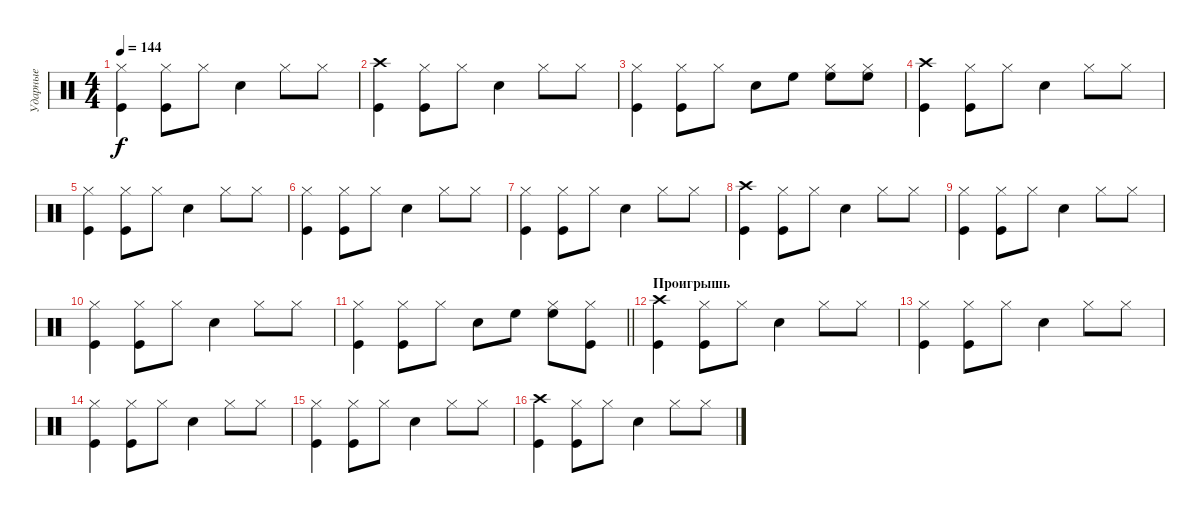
\track ("Ударные" "Ударные") {instrument percussion}
\staff {score}
\articulation defaults
\ts (4 4)
\tempo 144
\clef neutral
\ks c
("Hi-Hat (closed)" "Kick (hit)").4{dy f} ("Hi-Hat (closed)" "Kick (hit)").8 "Hi-Hat (closed)".8 "Snare (hit) 2".4 "Hi-Hat (closed)".8 "Hi-Hat (closed)".8 |
("Crash high (hit)" "Kick (hit)").4 ("Hi-Hat (closed)" "Kick (hit)").8 "Hi-Hat (closed)".8 "Snare (hit) 2".4 "Hi-Hat (closed)".8 "Hi-Hat (closed)".8 |
("Hi-Hat (closed)" "Kick (hit)").4 ("Hi-Hat (closed)" "Kick (hit)").8 "Hi-Hat (closed)".8 "Snare (hit) 2".8 "High Floor Tom (hit)".8 ("Hi-Hat (closed)" "High Floor Tom (hit)").8 ("Hi-Hat (closed)" "High Floor Tom (hit)").8 |
("Crash high (hit)" "Kick (hit)").4 ("Hi-Hat (closed)" "Kick (hit)").8 "Hi-Hat (closed)".8 "Snare (hit) 2".4 "Hi-Hat (closed)".8 "Hi-Hat (closed)".8 |
("Hi-Hat (closed)" "Kick (hit)").4 ("Hi-Hat (closed)" "Kick (hit)").8 "Hi-Hat (closed)".8 "Snare (hit) 2".4 "Hi-Hat (closed)".8 "Hi-Hat (closed)".8 |
("Hi-Hat (closed)" "Kick (hit)").4 ("Hi-Hat (closed)" "Kick (hit)").8 "Hi-Hat (closed)".8 "Snare (hit) 2".4 "Hi-Hat (closed)".8 "Hi-Hat (closed)".8 |
("Hi-Hat (closed)" "Kick (hit)").4 ("Hi-Hat (closed)" "Kick (hit)").8 "Hi-Hat (closed)".8 "Snare (hit) 2".4 "Hi-Hat (closed)".8 "Hi-Hat (closed)".8 |
("Crash high (hit)" "Kick (hit)").4 ("Hi-Hat (closed)" "Kick (hit)").8 "Hi-Hat (closed)".8 "Snare (hit) 2".4 "Hi-Hat (closed)".8 "Hi-Hat (closed)".8 |
("Hi-Hat (closed)" "Kick (hit)").4 ("Hi-Hat (closed)" "Kick (hit)").8 "Hi-Hat (closed)".8 "Snare (hit) 2".4 "Hi-Hat (closed)".8 "Hi-Hat (closed)".8 |
("Hi-Hat (closed)" "Kick (hit)").4 ("Hi-Hat (closed)" "Kick (hit)").8 "Hi-Hat (closed)".8 "Snare (hit) 2".4 "Hi-Hat (closed)".8 "Hi-Hat (closed)".8 |
\barLineRight lightlight
("Hi-Hat (closed)" "Kick (hit)").4 ("Hi-Hat (closed)" "Kick (hit)").8 "Hi-Hat (closed)".8 "Snare (hit) 2".8 "High Floor Tom (hit)".8 ("Hi-Hat (closed)" "High Floor Tom (hit)").8 ("Hi-Hat (closed)" "Kick (hit)").8 |
\section ("" "Проигрышь")
("Crash high (hit)" "Kick (hit)").4 ("Hi-Hat (closed)" "Kick (hit)").8 "Hi-Hat (closed)".8 "Snare (hit) 2".4 "Hi-Hat (closed)".8 "Hi-Hat (closed)".8 |
("Hi-Hat (closed)" "Kick (hit)").4 ("Hi-Hat (closed)" "Kick (hit)").8 "Hi-Hat (closed)".8 "Snare (hit) 2".4 "Hi-Hat (closed)".8 "Hi-Hat (closed)".8 |
("Hi-Hat (closed)" "Kick (hit)").4 ("Hi-Hat (closed)" "Kick (hit)").8 "Hi-Hat (closed)".8 "Snare (hit) 2".4 "Hi-Hat (closed)".8 "Hi-Hat (closed)".8 |
("Hi-Hat (closed)" "Kick (hit)").4 ("Hi-Hat (closed)" "Kick (hit)").8 "Hi-Hat (closed)".8 "Snare (hit) 2".4 "Hi-Hat (closed)".8 "Hi-Hat (closed)".8 |
("Crash high (hit)" "Kick (hit)").4 ("Hi-Hat (closed)" "Kick (hit)").8 "Hi-Hat (closed)".8 "Snare (hit) 2".4 "Hi-Hat (closed)".8 "Hi-Hat (closed)".8
